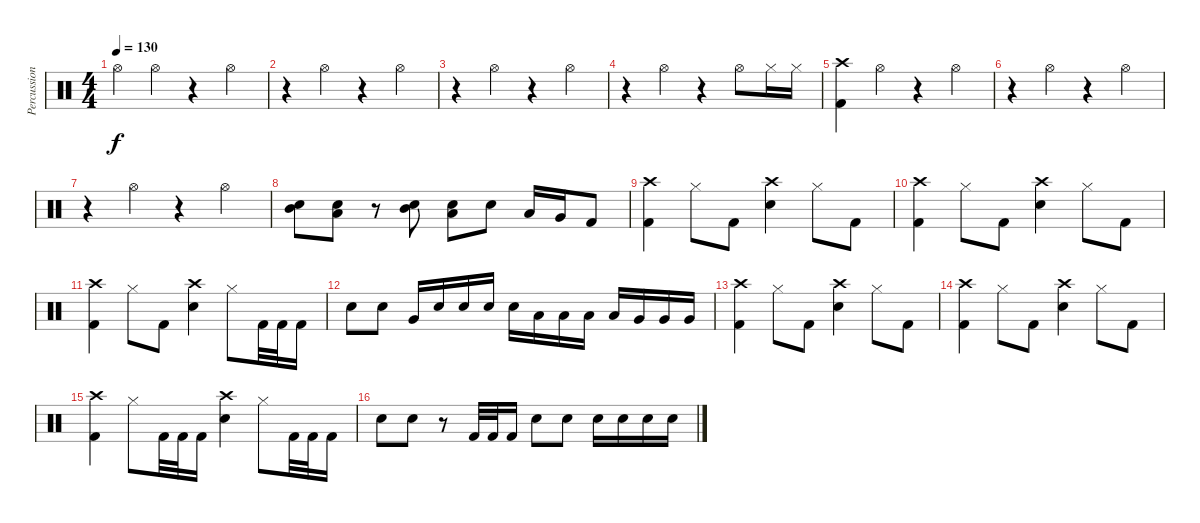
\track ("Percussions" "Percussion") {instrument percussion}
\staff {score}
\articulation defaults
\ts (4 4)
\tempo 130
\clef neutral
\ks c "Hi-Hat (open)".4{dy f} "Hi-Hat (open)".4
r.4 "Hi-Hat (open)".4 |
r.4 "Hi-Hat (open)".4 r.4 "Hi-Hat (open)".4 |
r.4 "Hi-Hat (open)".4 r.4 "Hi-Hat (open)".4 |
r.4 "Hi-Hat (open)".4 r.4 "Hi-Hat (open)".8 "Hi-Hat (closed)".16 "Hi-Hat (closed)".16 |
("Crash high (hit)" "Kick (hit) 2").4 "Hi-Hat (open)".4 r.4 "Hi-Hat (open)".4 |
r.4 "Hi-Hat (open)".4 r.4 "Hi-Hat (open)".4 |
r.4 "Hi-Hat (open)".4 r.4 "Hi-Hat (open)".4 |
("Mid Tom (hit)" "Electric Snare (hit)").8 ("Low Tom (hit)" "Electric Snare (hit)").8 r.8 ("Mid Tom (hit)" "Electric Snare (hit)").8 ("Low Tom (hit)" "Electric Snare (hit)").8 "Electric Snare (hit)".8 "Low Tom (hit)".16 "Very Low Tom (hit)".16 "Kick (hit) 2".8 |
("Crash high (hit)" "Kick (hit) 2").4 "Hi-Hat (closed)".8 "Kick (hit) 2".8 ("Crash high (hit)" "Electric Snare (hit)").4 "Hi-Hat (closed)".8 "Kick (hit) 2".8 |
("Crash high (hit)" "Kick (hit) 2").4 "Hi-Hat (closed)".8 "Kick (hit) 2".8 ("Crash high (hit)" "Electric Snare (hit)").4 "Hi-Hat (closed)".8 "Kick (hit) 2".8 |
("Crash high (hit)" "Kick (hit) 2").4 "Hi-Hat (closed)".8 "Kick (hit) 2".8 ("Crash high (hit)" "Electric Snare (hit)").4 "Hi-Hat (closed)".8 "Kick (hit) 2".32 "Kick (hit) 2".32 "Kick (hit) 2".16 |
"Electric Snare (hit)".8 "Electric Snare (hit)".8 "Very Low Tom (hit)".16 "Electric Snare (hit)".16 "Electric Snare (hit)".16 "Electric Snare (hit)".16 "Electric Snare (hit)".16 "Low Tom (hit)".16 "Low Tom (hit)".16 "Low Tom (hit)".16 "Low Tom (hit)".16 "Very Low Tom (hit)".16 "Very Low Tom (hit)".16 "Very Low Tom (hit)".16 |
("Crash high (hit)" "Kick (hit) 2").4 "Hi-Hat (closed)".8 "Kick (hit) 2".8 ("Crash high (hit)" "Electric Snare (hit)").4 "Hi-Hat (closed)".8 "Kick (hit) 2".8 |
("Crash high (hit)" "Kick (hit) 2").4 "Hi-Hat (closed)".8 "Kick (hit) 2".8 ("Crash high (hit)" "Electric Snare (hit)").4 "Hi-Hat (closed)".8 "Kick (hit) 2".8 |
("Crash high (hit)" "Kick (hit) 2").4 "Hi-Hat (closed)".8 "Kick (hit) 2".32 "Kick (hit) 2".32 "Kick (hit) 2".16 ("Crash high (hit)" "Electric Snare (hit)").4 "Hi-Hat (closed)".8 "Kick (hit) 2".32 "Kick (hit) 2".32 "Kick (hit) 2".16 |
"Electric Snare (hit)".8 "Electric Snare (hit)".8 r.8 "Kick (hit) 2".32 "Kick (hit) 2".32 "Kick (hit) 2".16 "Electric Snare (hit)".8 "Electric Snare (hit)".8 "Electric Snare (hit)".16 "Electric Snare (hit)".16 "Electric Snare (hit)".16 "Electric Snare (hit)".16
